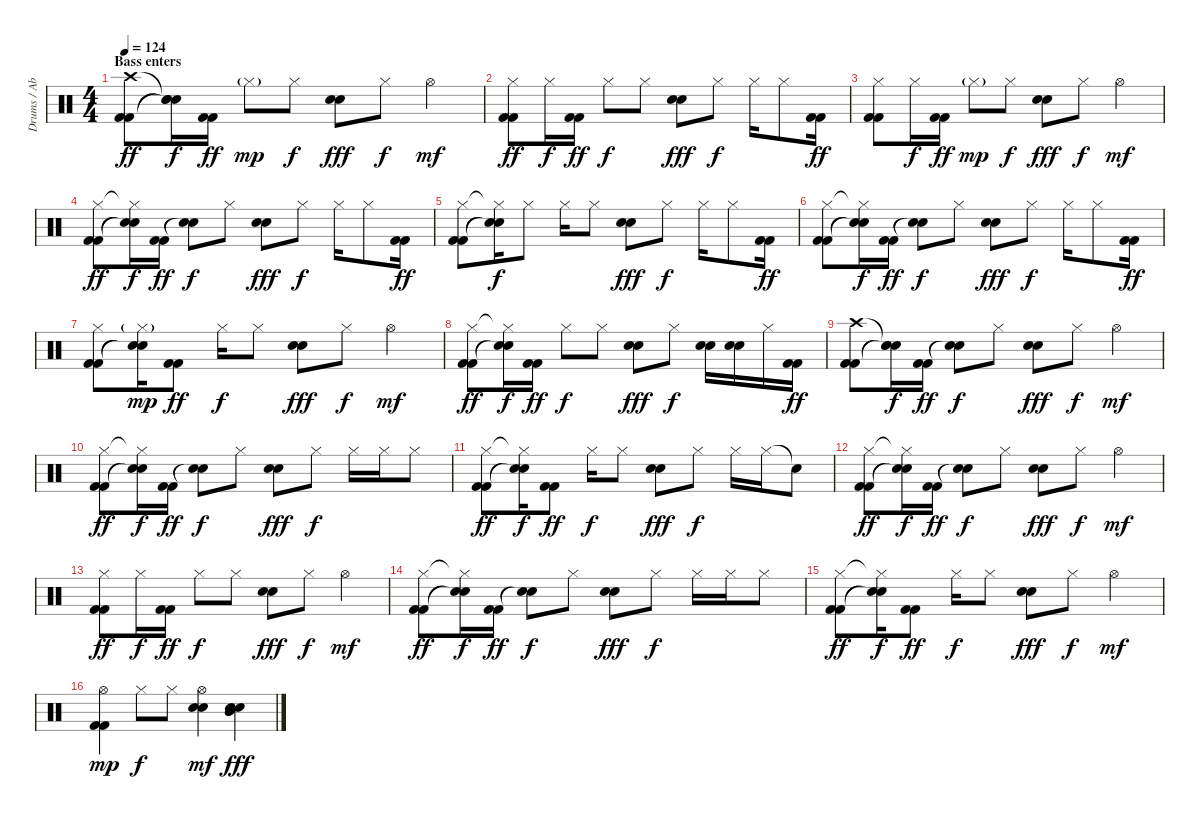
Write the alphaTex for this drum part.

\track ("Drums / Abe Cunningham" "Drums / Ab") {instrument percussion}
\staff {score}
\articulation defaults
\ts (4 4)
\section ("" "Bass enters")
\tempo 124
\clef neutral
\ks c
("Crash high (hit)" "Kick (hit) 2" "Kick (hit) 2").8{dy ff} ("Snare (hit)"{t} "Snare (hit)"{t} "Snare (hit)"{t}).16{dy f} ("Kick (hit) 2" "Kick (hit) 2").16{dy ff} "Hi-Hat (closed)"{g}.8{dy mp} "Hi-Hat (closed)".8{dy f} ("Electric Snare (hit)" "Electric Snare (hit)").8{dy fff} "Hi-Hat (closed)".8{dy f} "Hi-Hat (open)".4{dy mf} |
("Hi-Hat (closed)" "Kick (hit) 2" "Kick (hit) 2").8{dy ff} "Hi-Hat (closed)".16{dy f} ("Kick (hit) 2" "Kick (hit) 2").16{dy ff} "Hi-Hat (closed)".8{dy f} "Hi-Hat (closed)".8 ("Electric Snare (hit)" "Electric Snare (hit)").8{dy fff} "Hi-Hat (closed)".8{dy f} "Hi-Hat (closed)".16 "Hi-Hat (closed)".8 ("Kick (hit) 2" "Kick (hit) 2").16{dy ff} |
("Hi-Hat (closed)" "Kick (hit) 2" "Kick (hit) 2").8 "Hi-Hat (closed)".16{dy f} ("Kick (hit) 2" "Kick (hit) 2").16{dy ff} "Hi-Hat (closed)"{g}.8{dy mp} "Hi-Hat (closed)".8{dy f} ("Electric Snare (hit)" "Electric Snare (hit)").8{dy fff} "Hi-Hat (closed)".8{dy f} "Hi-Hat (open)".4{dy mf} |
("Hi-Hat (closed)" "Kick (hit) 2" "Kick (hit) 2").8{dy ff} ("Hi-Hat (closed)"{t} "Snare (hit)"{t} "Snare (hit)"{t}).16{dy f} ("Kick (hit) 2" "Kick (hit) 2").16{dy ff} ("Snare (hit)"{t} "Snare (hit)"{t}).8{dy f} "Hi-Hat (closed)".8 ("Electric Snare (hit)" "Electric Snare (hit)").8{dy fff} "Hi-Hat (closed)".8{dy f} "Hi-Hat (closed)".16 "Hi-Hat (closed)".8 ("Kick (hit) 2" "Kick (hit) 2").16{dy ff} |
("Hi-Hat (closed)" "Kick (hit) 2" "Kick (hit) 2").8 ("Hi-Hat (closed)"{t} "Snare (hit)"{t} "Snare (hit)"{t}).16{dy f} "Hi-Hat (closed)".8 "Hi-Hat (closed)".16 "Hi-Hat (closed)".8 ("Electric Snare (hit)" "Electric Snare (hit)").8{dy fff} "Hi-Hat (closed)".8{dy f} "Hi-Hat (closed)".16 "Hi-Hat (closed)".8 ("Kick (hit) 2" "Kick (hit) 2").16{dy ff} |
("Hi-Hat (closed)" "Kick (hit) 2" "Kick (hit) 2").8 ("Hi-Hat (closed)"{t} "Snare (hit)"{t} "Snare (hit)"{t}).16{dy f} ("Kick (hit) 2" "Kick (hit) 2").16{dy ff} ("Snare (hit)"{t} "Snare (hit)"{t}).8{dy f} "Hi-Hat (closed)".8 ("Electric Snare (hit)" "Electric Snare (hit)").8{dy fff} "Hi-Hat (closed)".8{dy f} "Hi-Hat (closed)".16 "Hi-Hat (closed)".8 ("Kick (hit) 2" "Kick (hit) 2").16{dy ff} |
("Hi-Hat (closed)" "Kick (hit) 2" "Kick (hit) 2").8 ("Hi-Hat (closed)"{g} "Snare (hit)"{t} "Snare (hit)"{t}).16{dy mp} ("Kick (hit) 2" "Kick (hit) 2").8{dy ff} "Hi-Hat (closed)".16{dy f} "Hi-Hat (closed)".8 ("Electric Snare (hit)" "Electric Snare (hit)").8{dy fff} "Hi-Hat (closed)".8{dy f} "Hi-Hat (open)".4{dy mf} |
("Hi-Hat (closed)" "Kick (hit) 2" "Kick (hit) 2").8{dy ff} ("Hi-Hat (closed)"{t} "Snare (hit)"{t} "Snare (hit)"{t}).16{dy f} ("Kick (hit) 2" "Kick (hit) 2").16{dy ff} "Hi-Hat (closed)".8{dy f} "Hi-Hat (closed)".8 ("Electric Snare (hit)" "Electric Snare (hit)").8{dy fff} "Hi-Hat (closed)".8{dy f} ("Electric Snare (hit)" "Electric Snare (hit)").16 ("Electric Snare (hit)" "Electric Snare (hit)").16 "Hi-Hat (closed)".16 ("Kick (hit) 2" "Kick (hit) 2").16{dy ff} |
("Crash high (hit)" "Kick (hit) 2" "Kick (hit) 2").8 ("Snare (hit)"{t} "Snare (hit)"{t} "Snare (hit)"{t}).16{dy f} ("Kick (hit) 2" "Kick (hit) 2").16{dy ff} ("Snare (hit)"{t} "Snare (hit)"{t}).8{dy f} "Hi-Hat (closed)".8 ("Electric Snare (hit)" "Electric Snare (hit)").8{dy fff} "Hi-Hat (closed)".8{dy f} "Hi-Hat (open)".4{dy mf} |
("Hi-Hat (closed)" "Kick (hit) 2" "Kick (hit) 2").8{dy ff} ("Hi-Hat (closed)"{t} "Snare (hit)"{t} "Snare (hit)"{t}).16{dy f} ("Kick (hit) 2" "Kick (hit) 2").16{dy ff} ("Snare (hit)"{t} "Snare (hit)"{t}).8{dy f} "Hi-Hat (closed)".8 ("Electric Snare (hit)" "Electric Snare (hit)").8{dy fff} "Hi-Hat (closed)".8{dy f} "Hi-Hat (closed)".16 "Hi-Hat (closed)".16 "Hi-Hat (closed)".8 |
("Hi-Hat (closed)" "Kick (hit) 2" "Kick (hit) 2").8{dy ff} ("Hi-Hat (closed)"{t} "Snare (hit)"{t} "Snare (hit)"{t}).16{dy f} ("Kick (hit) 2" "Kick (hit) 2").8{dy ff} "Hi-Hat (closed)".16{dy f} "Hi-Hat (closed)".8 ("Electric Snare (hit)" "Electric Snare (hit)").8{dy fff} "Hi-Hat (closed)".8{dy f} "Hi-Hat (closed)".16 "Hi-Hat (closed)".16 "Snare (hit)"{t}.8 |
("Hi-Hat (closed)" "Kick (hit) 2" "Kick (hit) 2").8{dy ff} ("Hi-Hat (closed)"{t} "Snare (hit)"{t} "Snare (hit)"{t}).16{dy f} ("Kick (hit) 2" "Kick (hit) 2").16{dy ff} ("Snare (hit)"{t} "Snare (hit)"{t}).8{dy f} "Hi-Hat (closed)".8 ("Electric Snare (hit)" "Electric Snare (hit)").8{dy fff} "Hi-Hat (closed)".8{dy f} "Hi-Hat (open)".4{dy mf} |
("Hi-Hat (closed)" "Kick (hit) 2" "Kick (hit) 2").8{dy ff} "Hi-Hat (closed)".16{dy f} ("Kick (hit) 2" "Kick (hit) 2").16{dy ff} "Hi-Hat (closed)".8{dy f} "Hi-Hat (closed)".8 ("Electric Snare (hit)" "Electric Snare (hit)").8{dy fff} "Hi-Hat (closed)".8{dy f} "Hi-Hat (open)".4{dy mf} |
("Hi-Hat (closed)" "Kick (hit) 2" "Kick (hit) 2").8{dy ff} ("Hi-Hat (closed)"{t} "Snare (hit)"{t} "Snare (hit)"{t}).16{dy f} ("Kick (hit) 2" "Kick (hit) 2").16{dy ff} ("Snare (hit)"{t} "Snare (hit)"{t}).8{dy f} "Hi-Hat (closed)".8 ("Electric Snare (hit)" "Electric Snare (hit)").8{dy fff} "Hi-Hat (closed)".8{dy f} "Hi-Hat (closed)".16 "Hi-Hat (closed)".16 "Hi-Hat (closed)".8 |
("Hi-Hat (closed)" "Kick (hit) 2" "Kick (hit) 2").8{dy ff} ("Hi-Hat (closed)"{t} "Snare (hit)"{t} "Snare (hit)"{t}).16{dy f} ("Kick (hit) 2" "Kick (hit) 2").8{dy ff} "Hi-Hat (closed)".16{dy f} "Hi-Hat (closed)".8 ("Electric Snare (hit)" "Electric Snare (hit)").8{dy fff} "Hi-Hat (closed)".8{dy f} "Hi-Hat (open)".4{dy mf} |
("Hi-Hat (open)" "Kick (hit) 2" "Kick (hit) 2").4{dy mp} "Hi-Hat (closed)".8{dy f} "Hi-Hat (closed)".8 ("Hi-Hat (open)" "Electric Snare (hit)" "Electric Snare (hit)").4{dy mf} ("Electric Snare (hit)" "Electric Snare (hit)" "Mid Tom (hit)" "Mid Tom (hit)").4{dy fff}
